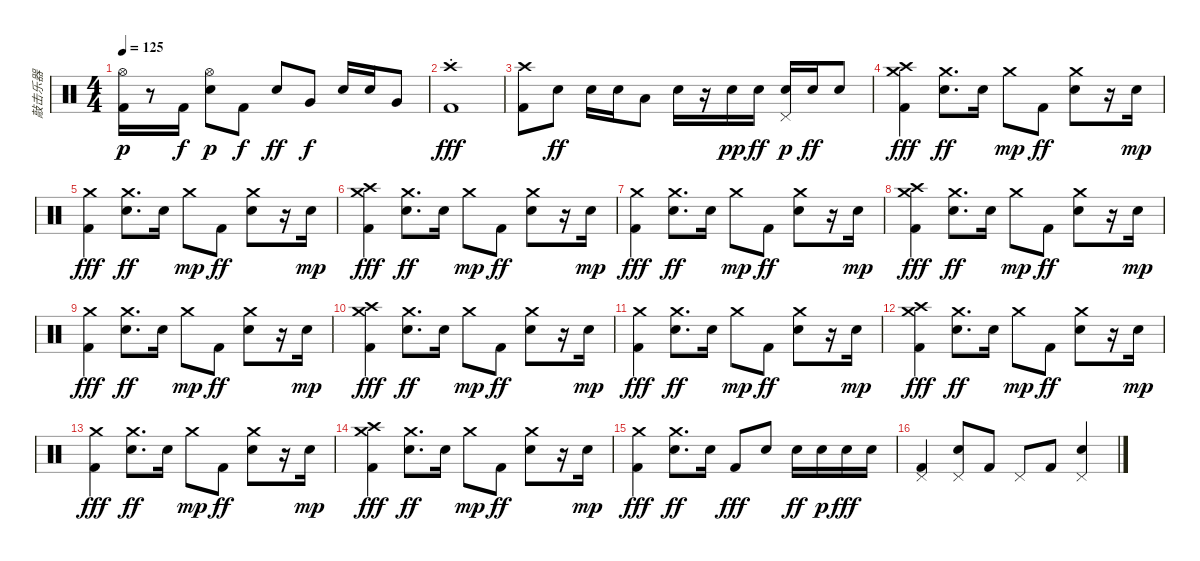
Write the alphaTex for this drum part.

\track ("敲击乐器" "敲击乐器") {instrument percussion}
\staff {score}
\articulation defaults
\ts (4 4)
\tempo 125
\clef neutral
\ks c
("Hi-Hat (open)" "Kick (hit) 2").16{dy p} r.8 "Kick (hit) 2".16{dy f} ("Hi-Hat (open)" "Snare (hit) 2").8{dy p} "Kick (hit) 2".8{dy f} "Snare (hit) 2".8{dy ff} "Very Low Tom (hit)".8{dy f} "Snare (hit) 2".16 "Snare (hit) 2".16 "Very Low Tom (hit)".8 |
("Crash high (hit)"{st} "Kick (hit) 2"{st}).1{dy fff} |
("Crash high (hit)" "Kick (hit) 2").8 "Snare (hit) 2".8{dy ff} "Snare (hit) 2".16 "Snare (hit) 2".16 "Low Tom (hit)".8 "Snare (hit) 2".16 r.16 "Snare (hit) 2".16{dy pp} "Snare (hit) 2".16{dy ff} ("Pedal Hi-Hat (hit)" "Snare (hit) 2").16{dy p} "Snare (hit) 2".16{dy ff} "Snare (hit) 2".8 |
("Crash high (hit)" "Crash medium (hit)" "Kick (hit) 2").4{dy fff} ("Crash medium (hit)" "Snare (hit) 2").8{d dy ff} "Snare (hit) 2".16 "Crash medium (hit)".8{dy mp} "Kick (hit) 2".8{dy ff} ("Crash medium (hit)" "Snare (hit) 2").8 r.16 "Snare (hit) 2".16{dy mp} |
("Crash medium (hit)" "Kick (hit) 2").4{dy fff} ("Crash medium (hit)" "Snare (hit) 2").8{d dy ff} "Snare (hit) 2".16 "Crash medium (hit)".8{dy mp} "Kick (hit) 2".8{dy ff} ("Crash medium (hit)" "Snare (hit) 2").8 r.16 "Snare (hit) 2".16{dy mp} |
("Crash high (hit)" "Crash medium (hit)" "Kick (hit) 2").4{dy fff} ("Crash medium (hit)" "Snare (hit) 2").8{d dy ff} "Snare (hit) 2".16 "Crash medium (hit)".8{dy mp} "Kick (hit) 2".8{dy ff} ("Crash medium (hit)" "Snare (hit) 2").8 r.16 "Snare (hit) 2".16{dy mp} |
("Crash medium (hit)" "Kick (hit) 2").4{dy fff} ("Crash medium (hit)" "Snare (hit) 2").8{d dy ff} "Snare (hit) 2".16 "Crash medium (hit)".8{dy mp} "Kick (hit) 2".8{dy ff} ("Crash medium (hit)" "Snare (hit) 2").8 r.16 "Snare (hit) 2".16{dy mp} |
("Crash high (hit)" "Crash medium (hit)" "Kick (hit) 2").4{dy fff} ("Crash medium (hit)" "Snare (hit) 2").8{d dy ff} "Snare (hit) 2".16 "Crash medium (hit)".8{dy mp} "Kick (hit) 2".8{dy ff} ("Crash medium (hit)" "Snare (hit) 2").8 r.16 "Snare (hit) 2".16{dy mp} |
("Crash medium (hit)" "Kick (hit) 2").4{dy fff} ("Crash medium (hit)" "Snare (hit) 2").8{d dy ff} "Snare (hit) 2".16 "Crash medium (hit)".8{dy mp} "Kick (hit) 2".8{dy ff} ("Crash medium (hit)" "Snare (hit) 2").8 r.16 "Snare (hit) 2".16{dy mp} |
("Crash high (hit)" "Crash medium (hit)" "Kick (hit) 2").4{dy fff} ("Crash medium (hit)" "Snare (hit) 2").8{d dy ff} "Snare (hit) 2".16 "Crash medium (hit)".8{dy mp} "Kick (hit) 2".8{dy ff} ("Crash medium (hit)" "Snare (hit) 2").8 r.16 "Snare (hit) 2".16{dy mp} |
("Crash medium (hit)" "Kick (hit) 2").4{dy fff} ("Crash medium (hit)" "Snare (hit) 2").8{d dy ff} "Snare (hit) 2".16 "Crash medium (hit)".8{dy mp} "Kick (hit) 2".8{dy ff} ("Crash medium (hit)" "Snare (hit) 2").8 r.16 "Snare (hit) 2".16{dy mp} |
("Crash high (hit)" "Crash medium (hit)" "Kick (hit) 2").4{dy fff} ("Crash medium (hit)" "Snare (hit) 2").8{d dy ff} "Snare (hit) 2".16 "Crash medium (hit)".8{dy mp} "Kick (hit) 2".8{dy ff} ("Crash medium (hit)" "Snare (hit) 2").8 r.16 "Snare (hit) 2".16{dy mp} |
("Crash medium (hit)" "Kick (hit) 2").4{dy fff} ("Crash medium (hit)" "Snare (hit) 2").8{d dy ff} "Snare (hit) 2".16 "Crash medium (hit)".8{dy mp} "Kick (hit) 2".8{dy ff} ("Crash medium (hit)" "Snare (hit) 2").8 r.16 "Snare (hit) 2".16{dy mp} |
("Crash high (hit)" "Crash medium (hit)" "Kick (hit) 2").4{dy fff} ("Crash medium (hit)" "Snare (hit) 2").8{d dy ff} "Snare (hit) 2".16 "Crash medium (hit)".8{dy mp} "Kick (hit) 2".8{dy ff} ("Crash medium (hit)" "Snare (hit) 2").8 r.16 "Snare (hit) 2".16{dy mp} |
("Crash medium (hit)" "Kick (hit) 2").4{dy fff} ("Crash medium (hit)" "Snare (hit) 2").8{d dy ff} "Snare (hit) 2".16 "Kick (hit) 2".8{dy fff} "Snare (hit) 2".8 "Snare (hit) 2".16{dy ff} "Snare (hit) 2".16{dy p} "Snare (hit) 2".16{dy fff} "Snare (hit) 2".16 |
("Pedal Hi-Hat (hit)" "Kick (hit) 2").4 ("Pedal Hi-Hat (hit)" "Snare (hit) 2").8 "Kick (hit) 2".8 "Pedal Hi-Hat (hit)".8 "Kick (hit) 2".8 ("Pedal Hi-Hat (hit)" "Snare (hit) 2").4
